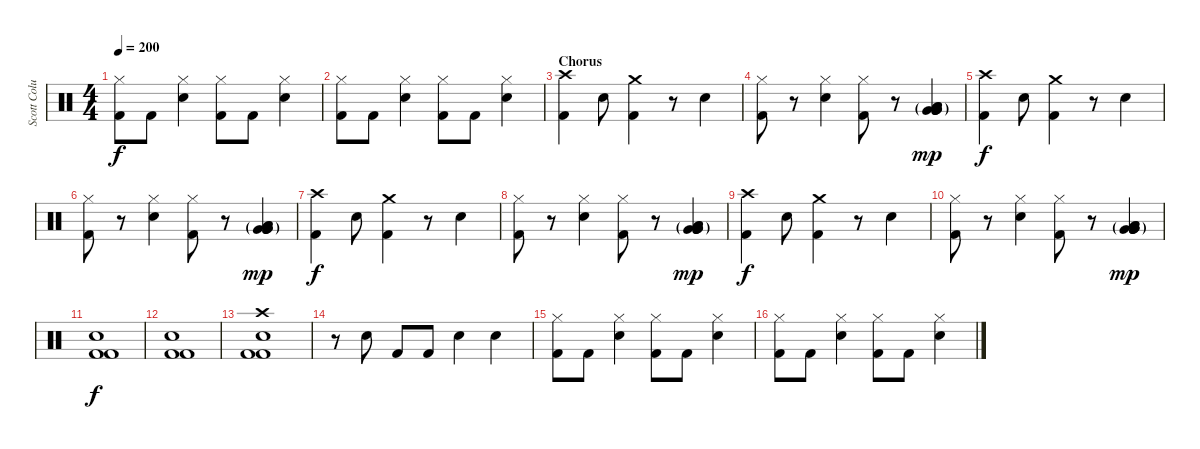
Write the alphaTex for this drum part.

\track ("Scott Columbus" "Scott Colu") {instrument percussion}
\staff {score}
\articulation defaults
\ts (4 4)
\tempo 200
\clef neutral
\ks c
("Hi-Hat (closed)" "Kick (hit) 2").8{dy f} "Kick (hit) 2".8 ("Hi-Hat (closed)" "Snare (hit) 2").4 ("Hi-Hat (closed)" "Kick (hit) 2").8 "Kick (hit) 2".8 ("Hi-Hat (closed)" "Snare (hit) 2").4 |
("Hi-Hat (closed)" "Kick (hit) 2").8 "Kick (hit) 2".8 ("Hi-Hat (closed)" "Snare (hit) 2").4 ("Hi-Hat (closed)" "Kick (hit) 2").8 "Kick (hit) 2".8 ("Hi-Hat (closed)" "Snare (hit) 2").4 |
\section ("" "Chorus")
("Crash high (hit)" "Kick (hit) 2").4 "Snare (hit) 2".8 ("Crash medium (hit)" "Kick (hit) 2").4 r.8 "Snare (hit) 2".4 |
("Hi-Hat (closed)" "Kick (hit) 2").8 r.8 ("Hi-Hat (closed)" "Snare (hit) 2").4 ("Hi-Hat (closed)" "Kick (hit) 2").8 r.8 ("Very Low Tom (hit)"{g} "Very Low Tom (hit)"{g} "Very Low Tom (hit)"{g} "Very Low Tom (hit)" "Low Tom (hit)" "Low Tom (hit)"{g}).4{dy mp} |
("Crash high (hit)" "Kick (hit) 2").4{dy f} "Snare (hit) 2".8 ("Crash medium (hit)" "Kick (hit) 2").4 r.8 "Snare (hit) 2".4 |
("Hi-Hat (closed)" "Kick (hit) 2").8 r.8 ("Hi-Hat (closed)" "Snare (hit) 2").4 ("Hi-Hat (closed)" "Kick (hit) 2").8 r.8 ("Very Low Tom (hit)"{g} "Very Low Tom (hit)"{g} "Very Low Tom (hit)"{g} "Very Low Tom (hit)" "Low Tom (hit)" "Low Tom (hit)"{g}).4{dy mp} |
("Crash high (hit)" "Kick (hit) 2").4{dy f} "Snare (hit) 2".8 ("Crash medium (hit)" "Kick (hit) 2").4 r.8 "Snare (hit) 2".4 |
("Hi-Hat (closed)" "Kick (hit) 2").8 r.8 ("Hi-Hat (closed)" "Snare (hit) 2").4 ("Hi-Hat (closed)" "Kick (hit) 2").8 r.8 ("Very Low Tom (hit)"{g} "Very Low Tom (hit)"{g} "Very Low Tom (hit)"{g} "Very Low Tom (hit)" "Low Tom (hit)" "Low Tom (hit)"{g}).4{dy mp} |
("Crash high (hit)" "Kick (hit) 2").4{dy f} "Snare (hit) 2".8 ("Crash medium (hit)" "Kick (hit) 2").4 r.8 "Snare (hit) 2".4 |
("Hi-Hat (closed)" "Kick (hit) 2").8 r.8 ("Hi-Hat (closed)" "Snare (hit) 2").4 ("Hi-Hat (closed)" "Kick (hit) 2").8 r.8 ("Very Low Tom (hit)"{g} "Very Low Tom (hit)"{g} "Very Low Tom (hit)"{g} "Very Low Tom (hit)" "Low Tom (hit)" "Low Tom (hit)"{g}).4{dy mp} |
("Snare (hit) 2" "Kick (hit) 2" "Kick (hit) 2").1{dy f} |
("Snare (hit) 2" "Kick (hit) 2" "Kick (hit) 2").1 |
("Crash high (hit)" "Snare (hit) 2" "Kick (hit) 2" "Kick (hit) 2").1 |
r.8 "Snare (hit) 2".8 "Kick (hit) 2".8 "Kick (hit) 2".8 "Snare (hit) 2".4 "Snare (hit) 2".4 |
("Hi-Hat (closed)" "Kick (hit) 2").8 "Kick (hit) 2".8 ("Hi-Hat (closed)" "Snare (hit) 2").4 ("Hi-Hat (closed)" "Kick (hit) 2").8 "Kick (hit) 2".8 ("Hi-Hat (closed)" "Snare (hit) 2").4 |
("Hi-Hat (closed)" "Kick (hit) 2").8 "Kick (hit) 2".8 ("Hi-Hat (closed)" "Snare (hit) 2").4 ("Hi-Hat (closed)" "Kick (hit) 2").8 "Kick (hit) 2".8 ("Hi-Hat (closed)" "Snare (hit) 2").4
